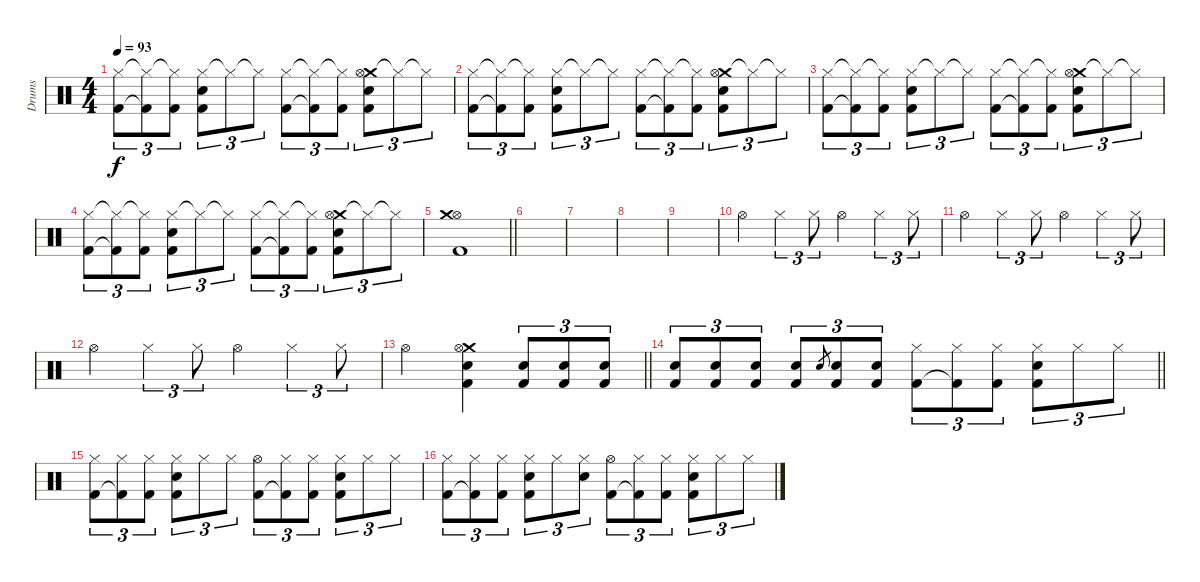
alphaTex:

\track ("Drums" "Drums") {instrument percussion}
\staff {score}
\articulation defaults
\ts (4 4)
\tempo 93
\clef neutral
\ks c
("Hi-Hat (closed)" "Kick (hit) 2").8{tu (3 2) dy f} ("Hi-Hat (closed)"{t} "Kick (hit) 2"{t}).8{tu (3 2)} ("Hi-Hat (closed)"{t} "Kick (hit) 2").8{tu (3 2)} ("Hi-Hat (closed)" "Snare (hit) 2" "Kick (hit) 2").8{tu (3 2)} "Hi-Hat (closed)"{t}.8{tu (3 2)} "Hi-Hat (closed)"{t}.8{tu (3 2)} ("Hi-Hat (closed)" "Kick (hit) 2").8{tu (3 2)} ("Hi-Hat (closed)"{t} "Kick (hit) 2"{t}).8{tu (3 2)} ("Hi-Hat (closed)"{t} "Kick (hit) 2").8{tu (3 2)} ("Crash medium (hit)" "Hi-Hat (open)" "Snare (hit) 2" "Kick (hit) 2").8{tu (3 2)} "Hi-Hat (closed)"{t}.8{tu (3 2)} "Hi-Hat (closed)"{t}.8{tu (3 2)} |
("Hi-Hat (closed)" "Kick (hit) 2").8{tu (3 2)} ("Hi-Hat (closed)"{t} "Kick (hit) 2"{t}).8{tu (3 2)} ("Hi-Hat (closed)"{t} "Kick (hit) 2").8{tu (3 2)} ("Hi-Hat (closed)" "Snare (hit) 2" "Kick (hit) 2").8{tu (3 2)} "Hi-Hat (closed)"{t}.8{tu (3 2)} "Hi-Hat (closed)"{t}.8{tu (3 2)} ("Hi-Hat (closed)" "Kick (hit) 2").8{tu (3 2)} ("Hi-Hat (closed)"{t} "Kick (hit) 2"{t}).8{tu (3 2)} ("Hi-Hat (closed)"{t} "Kick (hit) 2").8{tu (3 2)} ("Crash medium (hit)" "Hi-Hat (open)" "Snare (hit) 2" "Kick (hit) 2").8{tu (3 2)} "Hi-Hat (closed)"{t}.8{tu (3 2)} "Hi-Hat (closed)"{t}.8{tu (3 2)} |
("Hi-Hat (closed)" "Kick (hit) 2").8{tu (3 2)} ("Hi-Hat (closed)"{t} "Kick (hit) 2"{t}).8{tu (3 2)} ("Hi-Hat (closed)"{t} "Kick (hit) 2").8{tu (3 2)} ("Hi-Hat (closed)" "Snare (hit) 2" "Kick (hit) 2").8{tu (3 2)} "Hi-Hat (closed)"{t}.8{tu (3 2)} "Hi-Hat (closed)"{t}.8{tu (3 2)} ("Hi-Hat (closed)" "Kick (hit) 2").8{tu (3 2)} ("Hi-Hat (closed)"{t} "Kick (hit) 2"{t}).8{tu (3 2)} ("Hi-Hat (closed)"{t} "Kick (hit) 2").8{tu (3 2)} ("Crash medium (hit)" "Hi-Hat (open)" "Snare (hit) 2" "Kick (hit) 2").8{tu (3 2)} "Hi-Hat (closed)"{t}.8{tu (3 2)} "Hi-Hat (closed)"{t}.8{tu (3 2)} |
("Hi-Hat (closed)" "Kick (hit) 2").8{tu (3 2)} ("Hi-Hat (closed)"{t} "Kick (hit) 2"{t}).8{tu (3 2)} ("Hi-Hat (closed)"{t} "Kick (hit) 2").8{tu (3 2)} ("Hi-Hat (closed)" "Snare (hit) 2" "Kick (hit) 2").8{tu (3 2)} "Hi-Hat (closed)"{t}.8{tu (3 2)} "Hi-Hat (closed)"{t}.8{tu (3 2)} ("Hi-Hat (closed)" "Kick (hit) 2").8{tu (3 2)} ("Hi-Hat (closed)"{t} "Kick (hit) 2"{t}).8{tu (3 2)} ("Hi-Hat (closed)"{t} "Kick (hit) 2").8{tu (3 2)} ("Crash medium (hit)" "Hi-Hat (open)" "Snare (hit) 2" "Kick (hit) 2").8{tu (3 2)} "Hi-Hat (closed)"{t}.8{tu (3 2)} "Hi-Hat (closed)"{t}.8{tu (3 2)} |
\barLineRight lightlight
("Hi-Hat (open)" "Crash medium (hit)" "Kick (hit) 2").1 |
|
|
|
|
"Hi-Hat (open)".4 "Hi-Hat (closed)".4{tu (3 2)} "Hi-Hat (closed)".8{tu (3 2)} "Hi-Hat (open)".4 "Hi-Hat (closed)".4{tu (3 2)} "Hi-Hat (closed)".8{tu (3 2)} |
"Hi-Hat (open)".4 "Hi-Hat (closed)".4{tu (3 2)} "Hi-Hat (closed)".8{tu (3 2)} "Hi-Hat (open)".4 "Hi-Hat (closed)".4{tu (3 2)} "Hi-Hat (closed)".8{tu (3 2)} |
"Hi-Hat (open)".4 "Hi-Hat (closed)".4{tu (3 2)} "Hi-Hat (closed)".8{tu (3 2)} "Hi-Hat (open)".4 "Hi-Hat (closed)".4{tu (3 2)} "Hi-Hat (closed)".8{tu (3 2)} |
\barLineRight lightlight "Hi-Hat (open)".2
("Crash medium (hit)" "Hi-Hat (open)" "Snare (hit) 2" "Kick (hit) 2").4 ("Snare (hit) 2" "Kick (hit) 2").8{tu (3 2) volume 8} ("Snare (hit) 2" "Kick (hit) 2").8{tu (3 2) volume 16} ("Snare (hit) 2" "Kick (hit) 2").8{tu (3 2)} |
\barLineRight lightlight
("Snare (hit) 2" "Kick (hit) 2").8{tu (3 2)} ("Snare (hit) 2" "Kick (hit) 2").8{tu (3 2)} ("Snare (hit) 2" "Kick (hit) 2").8{tu (3 2)} ("Snare (hit) 2" "Kick (hit) 2").8{tu (3 2)} "Snare (hit) 2".8{gr} ("Snare (hit) 2" "Kick (hit) 2").8{tu (3 2)} ("Snare (hit) 2" "Kick (hit) 2").8{tu (3 2)} ("Hi-Hat (closed)" "Kick (hit) 2").8{tu (3 2)} ("Hi-Hat (closed)" "Kick (hit) 2"{t}).8{tu (3 2)} ("Hi-Hat (closed)" "Kick (hit) 2").8{tu (3 2)} ("Hi-Hat (closed)" "Snare (hit) 2" "Kick (hit) 2").8{tu (3 2)} "Hi-Hat (closed)".8{tu (3 2)} "Hi-Hat (closed)".8{tu (3 2)} |
("Hi-Hat (closed)" "Kick (hit) 2").8{tu (3 2)} ("Hi-Hat (closed)" "Kick (hit) 2"{t}).8{tu (3 2)} ("Hi-Hat (closed)" "Kick (hit) 2").8{tu (3 2)} ("Hi-Hat (closed)" "Snare (hit) 2" "Kick (hit) 2").8{tu (3 2)} "Hi-Hat (closed)".8{tu (3 2)} "Hi-Hat (closed)".8{tu (3 2)} ("Hi-Hat (open)" "Kick (hit) 2").8{tu (3 2)} ("Hi-Hat (closed)" "Kick (hit) 2"{t}).8{tu (3 2)} ("Hi-Hat (closed)" "Kick (hit) 2").8{tu (3 2)} ("Hi-Hat (closed)" "Snare (hit) 2" "Kick (hit) 2").8{tu (3 2)} "Hi-Hat (closed)".8{tu (3 2)} "Hi-Hat (closed)".8{tu (3 2)} |
("Hi-Hat (closed)" "Kick (hit) 2").8{tu (3 2)} ("Hi-Hat (closed)" "Kick (hit) 2"{t}).8{tu (3 2)} ("Hi-Hat (closed)" "Kick (hit) 2").8{tu (3 2)} ("Hi-Hat (closed)" "Snare (hit) 2" "Kick (hit) 2").8{tu (3 2)} "Hi-Hat (closed)".8{tu (3 2)} ("Hi-Hat (closed)" "Snare (hit) 2").8{tu (3 2)} ("Hi-Hat (open)" "Kick (hit) 2").8{tu (3 2)} ("Hi-Hat (closed)" "Kick (hit) 2"{t}).8{tu (3 2)} ("Hi-Hat (closed)" "Kick (hit) 2").8{tu (3 2)} ("Hi-Hat (closed)" "Snare (hit) 2" "Kick (hit) 2").8{tu (3 2)} "Hi-Hat (closed)".8{tu (3 2)} "Hi-Hat (closed)".8{tu (3 2)}
